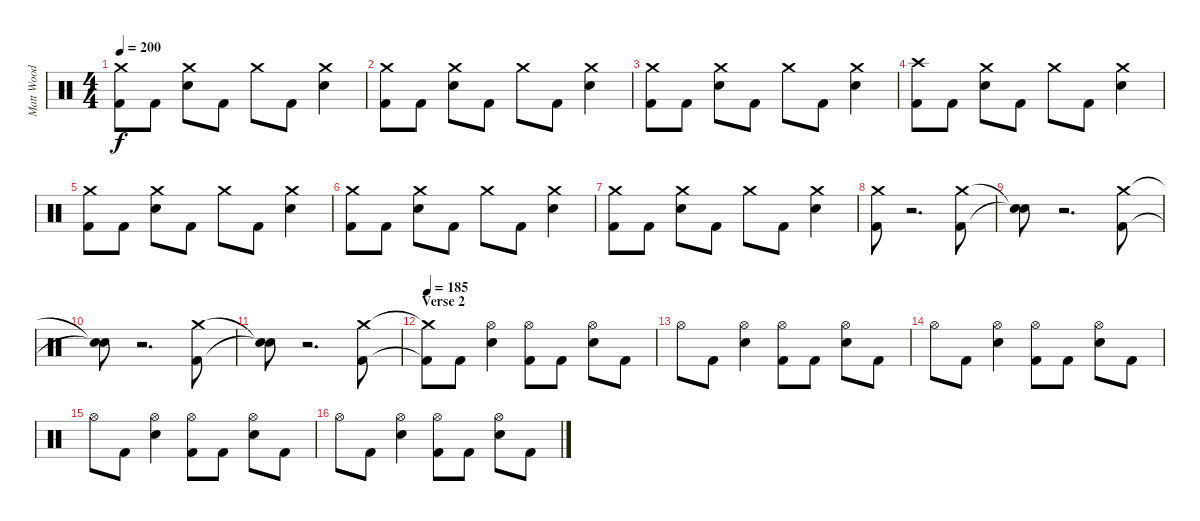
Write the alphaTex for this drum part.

\track ("Matt Wood" "Matt Wood") {instrument percussion}
\staff {score}
\articulation defaults
\ts (4 4)
\tempo 200
\clef neutral
\ks c
("Crash medium (hit)" "Kick (hit) 2").8{dy f} "Kick (hit) 2".8 ("Crash medium (hit)" "Snare (hit) 2").8 "Kick (hit) 2".8 "Crash medium (hit)".8 "Kick (hit) 2".8 ("Crash medium (hit)" "Snare (hit) 2").4 |
("Crash medium (hit)" "Kick (hit) 2").8 "Kick (hit) 2".8 ("Crash medium (hit)" "Snare (hit) 2").8 "Kick (hit) 2".8 "Crash medium (hit)".8 "Kick (hit) 2".8 ("Crash medium (hit)" "Snare (hit) 2").4 |
("Crash medium (hit)" "Kick (hit) 2").8 "Kick (hit) 2".8 ("Crash medium (hit)" "Snare (hit) 2").8 "Kick (hit) 2".8 "Crash medium (hit)".8 "Kick (hit) 2".8 ("Crash medium (hit)" "Snare (hit) 2").4 |
("Crash high (hit)" "Kick (hit) 2").8 "Kick (hit) 2".8 ("Crash medium (hit)" "Snare (hit) 2").8 "Kick (hit) 2".8 "Crash medium (hit)".8 "Kick (hit) 2".8 ("Crash medium (hit)" "Snare (hit) 2").4 |
("Crash medium (hit)" "Kick (hit) 2").8 "Kick (hit) 2".8 ("Crash medium (hit)" "Snare (hit) 2").8 "Kick (hit) 2".8 "Crash medium (hit)".8 "Kick (hit) 2".8 ("Crash medium (hit)" "Snare (hit) 2").4 |
("Crash medium (hit)" "Kick (hit) 2").8 "Kick (hit) 2".8 ("Crash medium (hit)" "Snare (hit) 2").8 "Kick (hit) 2".8 "Crash medium (hit)".8 "Kick (hit) 2".8 ("Crash medium (hit)" "Snare (hit) 2").4 |
("Crash medium (hit)" "Kick (hit) 2").8 "Kick (hit) 2".8 ("Crash medium (hit)" "Snare (hit) 2").8 "Kick (hit) 2".8 "Crash medium (hit)".8 "Kick (hit) 2".8 ("Crash medium (hit)" "Snare (hit) 2").4 |
("Crash medium (hit)" "Kick (hit) 2").8 r.2{d} ("Crash medium (hit)" "Kick (hit) 2").8 |
("Snare (hit)"{t} "Snare (hit)"{t}).8 r.2{d} ("Crash medium (hit)" "Kick (hit) 2").8 |
("Snare (hit)"{t} "Snare (hit)"{t}).8 r.2{d} ("Crash medium (hit)" "Kick (hit) 2").8 |
("Snare (hit)"{t} "Snare (hit)"{t}).8 r.2{d} ("Crash medium (hit)" "Kick (hit) 2").8 |
\section ("" "Verse 2")
\tempo 185
("Crash medium (hit)"{t} "Kick (hit) 2"{t}).8 "Kick (hit) 2".8 ("Hi-Hat (open)" "Snare (hit) 2").4 ("Hi-Hat (open)" "Kick (hit) 2").8 "Kick (hit) 2".8 ("Hi-Hat (open)" "Snare (hit) 2").8 "Kick (hit) 2".8 |
"Hi-Hat (open)".8 "Kick (hit) 2".8 ("Hi-Hat (open)" "Snare (hit) 2").4 ("Hi-Hat (open)" "Kick (hit) 2").8 "Kick (hit) 2".8 ("Hi-Hat (open)" "Snare (hit) 2").8 "Kick (hit) 2".8 |
"Hi-Hat (open)".8 "Kick (hit) 2".8 ("Hi-Hat (open)" "Snare (hit) 2").4 ("Hi-Hat (open)" "Kick (hit) 2").8 "Kick (hit) 2".8 ("Hi-Hat (open)" "Snare (hit) 2").8 "Kick (hit) 2".8 |
"Hi-Hat (open)".8 "Kick (hit) 2".8 ("Hi-Hat (open)" "Snare (hit) 2").4 ("Hi-Hat (open)" "Kick (hit) 2").8 "Kick (hit) 2".8 ("Hi-Hat (open)" "Snare (hit) 2").8 "Kick (hit) 2".8 |
"Hi-Hat (open)".8 "Kick (hit) 2".8 ("Hi-Hat (open)" "Snare (hit) 2").4 ("Hi-Hat (open)" "Kick (hit) 2").8 "Kick (hit) 2".8 ("Hi-Hat (open)" "Snare (hit) 2").8 "Kick (hit) 2".8
